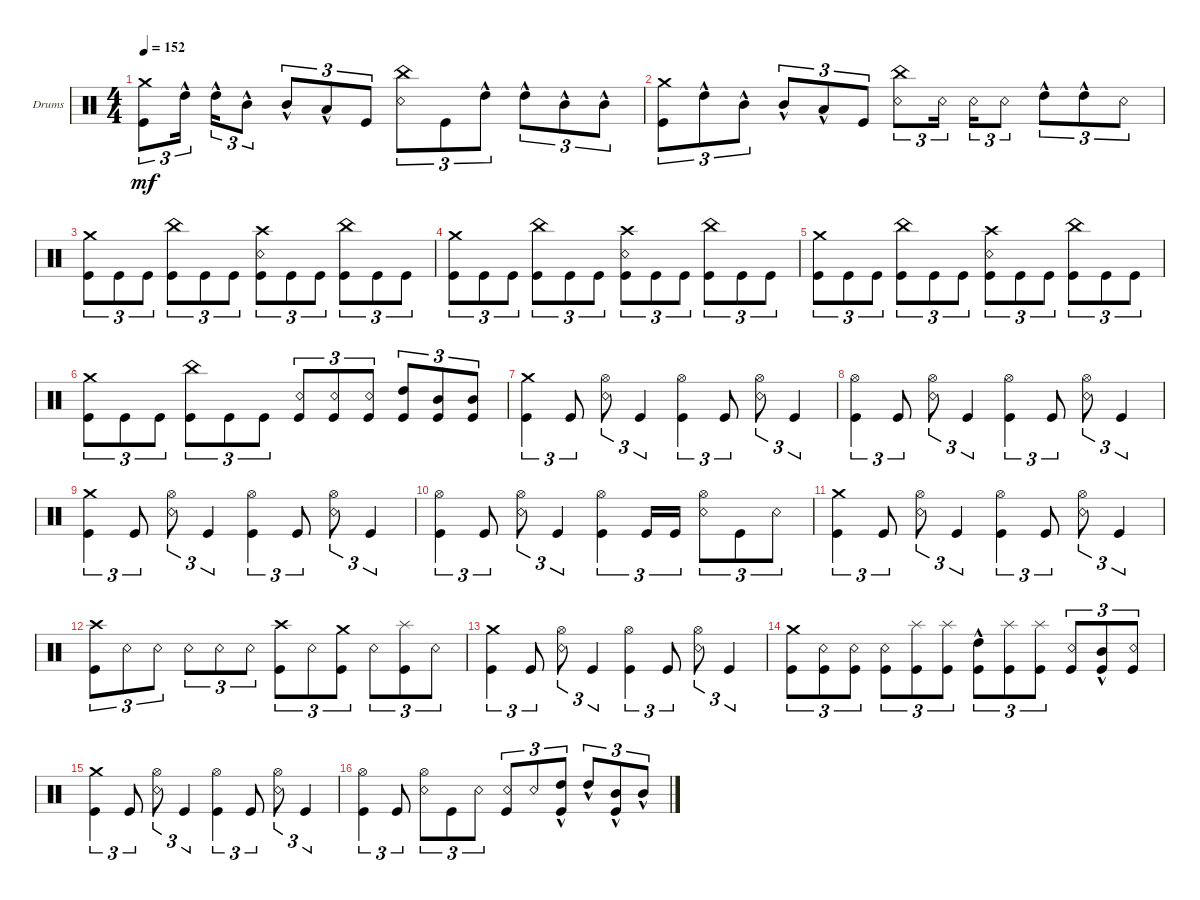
\defaultSystemsLayout 4
\bracketExtendMode groupsimilarinstruments
\firstSystemTrackNameOrientation horizontal
\otherSystemsTrackNameOrientation horizontal
\track ("Drumkit" "Drums") {instrument percussion}
\staff {score}
\articulation defaults
\ts (4 4)
\tempo 152
\clef neutral
\ks c
("Kick (hit)" "Crash medium (hit)").8{tu (3 2) dy mf} "High Tom (hit)"{hac}.16{tu (3 2)} "High Tom (hit)"{hac}.16{tu (3 2)} "Mid Tom (hit)"{hac}.8{tu (3 2)} "Mid Tom (hit)"{hac}.8{tu (3 2)} "Low Tom (hit)"{hac}.8{tu (3 2)} "Kick (hit)".8{tu (3 2)} ("Snare (rim shot)" "China (hit)").8{tu (3 2)} "Kick (hit)".8{tu (3 2)} "High Tom (hit)"{hac}.8{tu (3 2)} "High Tom (hit)"{hac}.8{tu (3 2)} "Mid Tom (hit)"{hac}.8{tu (3 2)} "Mid Tom (hit)"{hac}.8{tu (3 2)} |
("Kick (hit)" "Crash medium (hit)").8{tu (3 2)} "High Tom (hit)"{hac}.8{tu (3 2)} "Mid Tom (hit)"{hac}.8{tu (3 2)} "Mid Tom (hit)"{hac}.8{tu (3 2)} "Low Tom (hit)"{hac}.8{tu (3 2)} "Kick (hit)".8{tu (3 2)} ("Snare (rim shot)" "China (hit)").8{tu (3 2)} "Snare (rim shot)".16{tu (3 2)} "Snare (rim shot)".16{tu (3 2)} "Snare (rim shot)".8{tu (3 2)} "High Tom (hit)"{hac}.8{tu (3 2)} "High Tom (hit)"{hac}.8{tu (3 2)} "Snare (rim shot)".8{tu (3 2)} |
("Kick (hit)" "Crash medium (hit)").8{tu (3 2)} "Kick (hit)".8{tu (3 2)} "Kick (hit)".8{tu (3 2)} ("Kick (hit)" "China (hit)").8{tu (3 2)} "Kick (hit)".8{tu (3 2)} "Kick (hit)".8{tu (3 2)} ("Kick (hit)" "Snare (rim shot)" "Crash high (hit)").8{tu (3 2)} "Kick (hit)".8{tu (3 2)} "Kick (hit)".8{tu (3 2)} ("Kick (hit)" "China (hit)").8{tu (3 2)} "Kick (hit)".8{tu (3 2)} "Kick (hit)".8{tu (3 2)} |
("Kick (hit)" "Crash medium (hit)").8{tu (3 2)} "Kick (hit)".8{tu (3 2)} "Kick (hit)".8{tu (3 2)} ("Kick (hit)" "China (hit)").8{tu (3 2)} "Kick (hit)".8{tu (3 2)} "Kick (hit)".8{tu (3 2)} ("Kick (hit)" "Snare (rim shot)" "Crash high (hit)").8{tu (3 2)} "Kick (hit)".8{tu (3 2)} "Kick (hit)".8{tu (3 2)} ("Kick (hit)" "China (hit)").8{tu (3 2)} "Kick (hit)".8{tu (3 2)} "Kick (hit)".8{tu (3 2)} |
("Kick (hit)" "Crash medium (hit)").8{tu (3 2)} "Kick (hit)".8{tu (3 2)} "Kick (hit)".8{tu (3 2)} ("Kick (hit)" "China (hit)").8{tu (3 2)} "Kick (hit)".8{tu (3 2)} "Kick (hit)".8{tu (3 2)} ("Kick (hit)" "Snare (rim shot)" "Crash high (hit)").8{tu (3 2)} "Kick (hit)".8{tu (3 2)} "Kick (hit)".8{tu (3 2)} ("Kick (hit)" "China (hit)").8{tu (3 2)} "Kick (hit)".8{tu (3 2)} "Kick (hit)".8{tu (3 2)} |
("Kick (hit)" "Crash medium (hit)").8{tu (3 2)} "Kick (hit)".8{tu (3 2)} "Kick (hit)".8{tu (3 2)} ("Kick (hit)" "China (hit)").8{tu (3 2)} "Kick (hit)".8{tu (3 2)} "Kick (hit)".8{tu (3 2)} ("Kick (hit)" "Snare (rim shot)").8{tu (3 2)} ("Kick (hit)" "Snare (rim shot)").8{tu (3 2)} ("Snare (rim shot)" "Kick (hit)").8{tu (3 2)} ("Kick (hit)" "High Tom (hit)").8{tu (3 2)} ("Kick (hit)" "Mid Tom (hit)").8{tu (3 2)} ("Kick (hit)" "Mid Tom (hit)").8{tu (3 2)} |
("Kick (hit)" "Crash medium (hit)").4{tu (3 2)} "Kick (hit)".8{tu (3 2)} ("Snare (rim shot)" "Hi-Hat (open)").8{tu (3 2)} "Kick (hit)".4{tu (3 2)} ("Kick (hit)" "Hi-Hat (open)").4{tu (3 2)} "Kick (hit)".8{tu (3 2)} ("Snare (rim shot)" "Hi-Hat (open)").8{tu (3 2)} "Kick (hit)".4{tu (3 2)} |
("Kick (hit)" "Hi-Hat (open)").4{tu (3 2)} "Kick (hit)".8{tu (3 2)} ("Snare (rim shot)" "Hi-Hat (open)").8{tu (3 2)} "Kick (hit)".4{tu (3 2)} ("Kick (hit)" "Hi-Hat (open)").4{tu (3 2)} "Kick (hit)".8{tu (3 2)} ("Snare (rim shot)" "Hi-Hat (open)").8{tu (3 2)} "Kick (hit)".4{tu (3 2)} |
("Kick (hit)" "Crash medium (hit)").4{tu (3 2)} "Kick (hit)".8{tu (3 2)} ("Snare (rim shot)" "Hi-Hat (open)").8{tu (3 2)} "Kick (hit)".4{tu (3 2)} ("Kick (hit)" "Hi-Hat (open)").4{tu (3 2)} "Kick (hit)".8{tu (3 2)} ("Snare (rim shot)" "Hi-Hat (open)").8{tu (3 2)} "Kick (hit)".4{tu (3 2)} |
("Kick (hit)" "Hi-Hat (open)").4{tu (3 2)} "Kick (hit)".8{tu (3 2)} ("Snare (rim shot)" "Hi-Hat (open)").8{tu (3 2)} "Kick (hit)".4{tu (3 2)} ("Kick (hit)" "Hi-Hat (open)").4{tu (3 2)} "Kick (hit)".16{tu (3 2)} "Kick (hit)".16{tu (3 2)} ("Snare (rim shot)" "Hi-Hat (open)").8{tu (3 2)} "Kick (hit)".8{tu (3 2)} "Snare (rim shot)".8{tu (3 2)} |
("Kick (hit)" "Crash medium (hit)").4{tu (3 2)} "Kick (hit)".8{tu (3 2)} ("Snare (rim shot)" "Hi-Hat (open)").8{tu (3 2)} "Kick (hit)".4{tu (3 2)} ("Kick (hit)" "Hi-Hat (open)").4{tu (3 2)} "Kick (hit)".8{tu (3 2)} ("Snare (rim shot)" "Hi-Hat (open)").8{tu (3 2)} "Kick (hit)".4{tu (3 2)} |
("Kick (hit)" "Crash high (hit)").8{tu (3 2)} "Snare (rim shot)".8{tu (3 2)} "Snare (rim shot)".8{tu (3 2)} "Snare (rim shot)".8{tu (3 2)} "Snare (rim shot)".8{tu (3 2)} "Snare (rim shot)".8{tu (3 2)} ("Kick (hit)" "Crash high (hit)").8{tu (3 2)} "Snare (rim shot)".8{tu (3 2)} ("Kick (hit)" "Crash medium (hit)").8{tu (3 2)} "Snare (rim shot)".8{tu (3 2)} ("Kick (hit)" "Splash (hit)").8{tu (3 2)} "Snare (rim shot)".8{tu (3 2)} |
("Kick (hit)" "Crash medium (hit)").4{tu (3 2)} "Kick (hit)".8{tu (3 2)} ("Snare (rim shot)" "Hi-Hat (open)").8{tu (3 2)} "Kick (hit)".4{tu (3 2)} ("Kick (hit)" "Hi-Hat (open)").4{tu (3 2)} "Kick (hit)".8{tu (3 2)} ("Snare (rim shot)" "Hi-Hat (open)").8{tu (3 2)} "Kick (hit)".4{tu (3 2)} |
("Kick (hit)" "Crash medium (hit)").8{tu (3 2)} ("Kick (hit)" "Snare (rim shot)").8{tu (3 2)} ("Kick (hit)" "Snare (rim shot)").8{tu (3 2)} ("Kick (hit)" "Snare (rim shot)").8{tu (3 2)} ("Kick (hit)" "Splash (hit)").8{tu (3 2)} ("Kick (hit)" "Splash (hit)").8{tu (3 2)} ("Kick (hit)" "High Tom (hit)"{hac}).8{tu (3 2)} ("Kick (hit)" "Splash (hit)").8{tu (3 2)} ("Kick (hit)" "Splash (hit)").8{tu (3 2)} ("Kick (hit)" "Snare (rim shot)").8{tu (3 2)} ("Kick (hit)" "Mid Tom (hit)"{hac}).8{tu (3 2)} ("Kick (hit)" "Snare (rim shot)").8{tu (3 2)} |
("Kick (hit)" "Crash medium (hit)").4{tu (3 2)} "Kick (hit)".8{tu (3 2)} ("Snare (rim shot)" "Hi-Hat (open)").8{tu (3 2)} "Kick (hit)".4{tu (3 2)} ("Kick (hit)" "Hi-Hat (open)").4{tu (3 2)} "Kick (hit)".8{tu (3 2)} ("Snare (rim shot)" "Hi-Hat (open)").8{tu (3 2)} "Kick (hit)".4{tu (3 2)} |
("Kick (hit)" "Hi-Hat (open)").4{tu (3 2)} "Kick (hit)".8{tu (3 2)} ("Snare (rim shot)" "Hi-Hat (open)").8{tu (3 2)} "Kick (hit)".8{tu (3 2)} "Snare (rim shot)".8{tu (3 2)} ("Kick (hit)" "Snare (rim shot)").8{tu (3 2)} "Snare (rim shot)".8{tu (3 2)} ("Kick (hit)" "High Tom (hit)"{hac}).8{tu (3 2)} "High Tom (hit)"{hac}.8{tu (3 2)} ("Kick (hit)" "Mid Tom (hit)"{hac}).8{tu (3 2)} "Mid Tom (hit)"{hac}.8{tu (3 2)}
